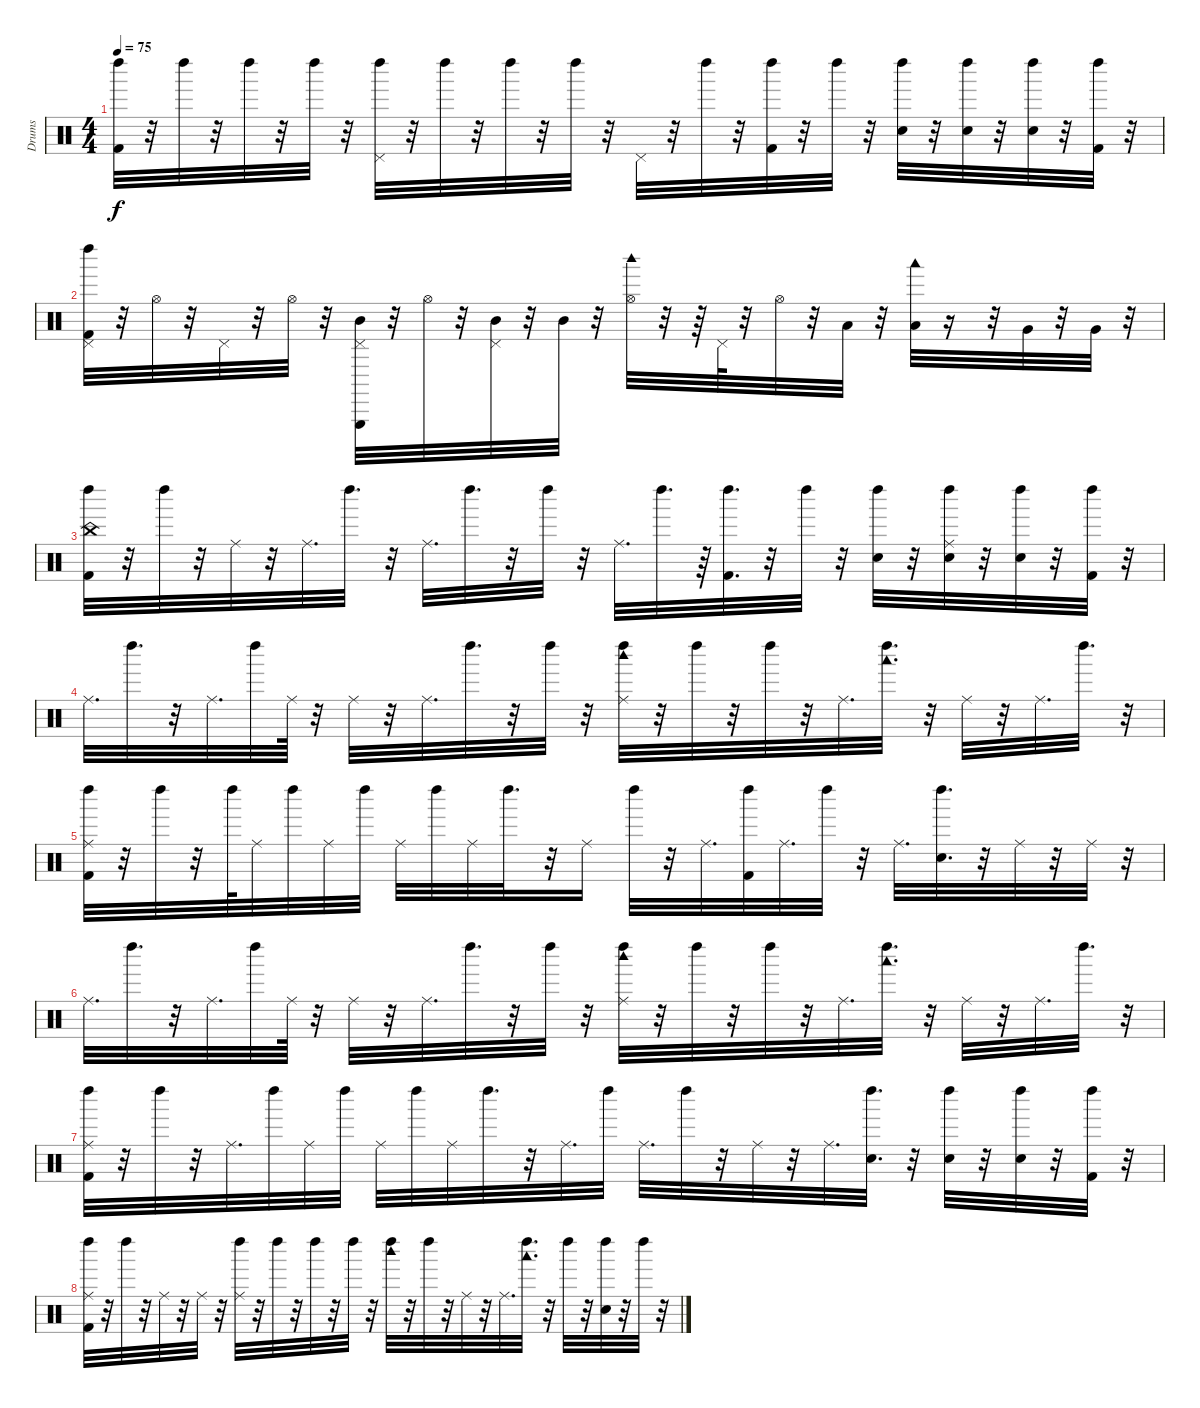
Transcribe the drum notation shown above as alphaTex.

\track ("Drums" "Drums") {instrument percussion}
\staff {score}
\articulation defaults
\ts (4 4)
\tempo 75
\clef neutral
\ks c
("Kick (hit) 2" "Left Maraca (hit)").32{dy f} r.32 "Left Maraca (hit)".32 r.32 "Left Maraca (hit)".32 r.32 "Left Maraca (hit)".32 r.32 ("Pedal Hi-Hat (hit)" "Left Maraca (hit)").32 r.32 "Left Maraca (hit)".32 r.32 "Left Maraca (hit)".32 r.32 "Left Maraca (hit)".32 r.32 "Pedal Hi-Hat (hit)".32 r.32 "Left Maraca (hit)".32 r.32 ("Kick (hit) 2" "Left Maraca (hit)").32 r.32 "Left Maraca (hit)".32 r.32 ("Snare (hit) 2" "Left Maraca (hit)").32 r.32 ("Snare (hit) 2" "Left Maraca (hit)").32 r.32 ("Snare (hit) 2" "Left Maraca (hit)").32 r.32 ("Kick (hit) 2" "Left Maraca (hit)").32 r.32 |
("Pedal Hi-Hat (hit)" "Kick (hit) 2" "Left Maraca (hit)").32 r.32 "Hi-Hat (open)".32 r.32 "Pedal Hi-Hat (hit)".32 r.32 "Hi-Hat (open)".32 r.32 ("Triangle (hit)" "Mid Tom (hit)" "Pedal Hi-Hat (hit)").32 r.32 "Hi-Hat (open)".32 r.32 ("Mid Tom (hit)" "Pedal Hi-Hat (hit)").32 r.32 "Mid Tom (hit)".32 r.32 ("Hi-Hat (open)" "Woodblock high (hit)").32 r.32 r.64 "Pedal Hi-Hat (hit)".64 r.32 "Hi-Hat (open)".32 r.32 "Low Tom (hit)".32 r.32 ("Low Tom (hit)" "Woodblock low (hit)").32 r.16 r.32 "Very Low Tom (hit)".32 r.32 "Very Low Tom (hit)".32 r.32 |
("China (hit)" "Kick (hit) 2" "Left Maraca (hit)").32 r.32 "Left Maraca (hit)".32 r.32 "Ride (middle)".32 r.32 "Ride (middle)".32{d} "Left Maraca (hit)".32{d} r.32 "Ride (middle)".32{d} "Left Maraca (hit)".32{d} r.32 "Left Maraca (hit)".32 r.32 "Ride (middle)".32{d} "Left Maraca (hit)".32{d} r.64 ("Kick (hit) 2" "Left Maraca (hit)").32{d} r.32 "Left Maraca (hit)".32 r.32 ("Snare (hit) 2" "Left Maraca (hit)").32 r.32 ("Ride (middle)" "Snare (hit) 2" "Left Maraca (hit)").32 r.32 ("Snare (hit) 2" "Left Maraca (hit)").32 r.32 ("Kick (hit) 2" "Left Maraca (hit)").32 r.32 |
"Ride (middle)".32{d} "Left Maraca (hit)".32{d} r.32 "Ride (middle)".32{d} "Left Maraca (hit)".32 "Ride (middle)".64 r.32 "Ride (middle)".32 r.32 "Ride (middle)".32{d} "Left Maraca (hit)".32{d} r.32 "Left Maraca (hit)".32 r.32 ("Ride (middle)" "Woodblock high (hit)" "Left Maraca (hit)").32 r.32 "Left Maraca (hit)".32 r.32 "Left Maraca (hit)".32 r.32 "Ride (middle)".32{d} ("Woodblock low (hit)" "Left Maraca (hit)").32{d} r.32 "Ride (middle)".32 r.32 "Ride (middle)".32{d} "Left Maraca (hit)".32{d} r.32 |
("Ride (middle)" "Kick (hit) 2" "Left Maraca (hit)").32 r.32 "Left Maraca (hit)".32 r.32 "Left Maraca (hit)".64 "Ride (middle)".32 "Left Maraca (hit)".32 "Ride (middle)".32 "Left Maraca (hit)".32 "Ride (middle)".32 "Left Maraca (hit)".32 "Ride (middle)".32 "Left Maraca (hit)".32{d} r.32 "Ride (middle)".16 "Left Maraca (hit)".32 r.32 "Ride (middle)".32{d} ("Kick (hit) 2" "Left Maraca (hit)").32 "Ride (middle)".32{d} "Left Maraca (hit)".32 r.32 "Ride (middle)".32{d} ("Snare (hit) 2" "Left Maraca (hit)").32{d} r.32 "Ride (middle)".32 r.32 "Ride (middle)".32 r.32 |
"Ride (middle)".32{d} "Left Maraca (hit)".32{d} r.32 "Ride (middle)".32{d} "Left Maraca (hit)".32 "Ride (middle)".64 r.32 "Ride (middle)".32 r.32 "Ride (middle)".32{d} "Left Maraca (hit)".32{d} r.32 "Left Maraca (hit)".32 r.32 ("Ride (middle)" "Woodblock high (hit)" "Left Maraca (hit)").32 r.32 "Left Maraca (hit)".32 r.32 "Left Maraca (hit)".32 r.32 "Ride (middle)".32{d} ("Woodblock low (hit)" "Left Maraca (hit)").32{d} r.32 "Ride (middle)".32 r.32 "Ride (middle)".32{d} "Left Maraca (hit)".32{d} r.32 |
("Ride (middle)" "Kick (hit) 2" "Left Maraca (hit)").32 r.32 "Left Maraca (hit)".32 r.32 "Ride (middle)".32{d} "Left Maraca (hit)".32 "Ride (middle)".32 "Left Maraca (hit)".32 "Ride (middle)".32 "Left Maraca (hit)".32 "Ride (middle)".32 "Left Maraca (hit)".32{d} r.32 "Ride (middle)".32{d} "Left Maraca (hit)".32 "Ride (middle)".32{d} "Left Maraca (hit)".32 r.32 "Ride (middle)".32 r.32 "Ride (middle)".32{d} ("Snare (hit) 2" "Left Maraca (hit)").32{d} r.32 ("Snare (hit) 2" "Left Maraca (hit)").32 r.32 ("Snare (hit) 2" "Left Maraca (hit)").32 r.32 ("Kick (hit) 2" "Left Maraca (hit)").32 r.32 |
("Ride (middle)" "Kick (hit) 2" "Left Maraca (hit)").32 r.32 "Left Maraca (hit)".32 r.32 "Ride (middle)".32 r.32 "Ride (middle)".32 r.32 ("Ride (middle)" "Left Maraca (hit)").32 r.32 "Left Maraca (hit)".32 r.32 "Left Maraca (hit)".32 r.32 "Left Maraca (hit)".32 r.32 ("Woodblock high (hit)" "Left Maraca (hit)").32 r.32 "Left Maraca (hit)".32 r.32 "Ride (middle)".32 r.32 "Ride (middle)".32{d} ("Woodblock low (hit)" "Left Maraca (hit)").32{d} r.32 "Left Maraca (hit)".32 r.32 ("Hand Clap (hit)" "Left Maraca (hit)").32 r.32 "Left Maraca (hit)".32 r.32
